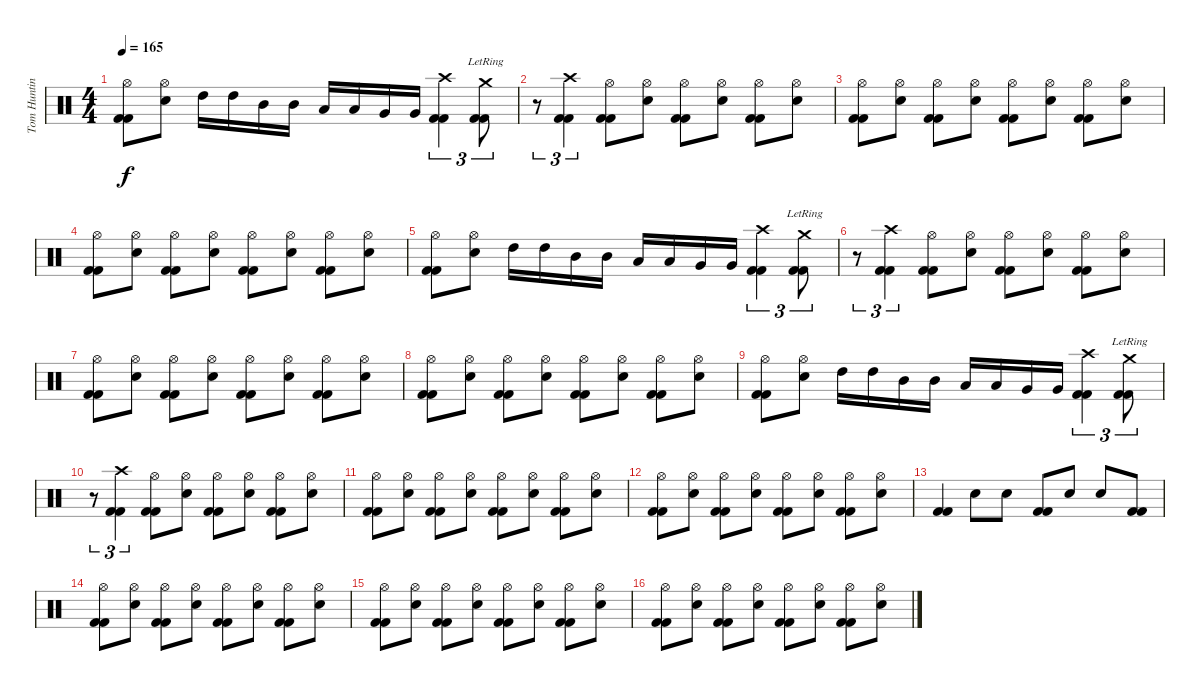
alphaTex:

\track ("Tom Hunting" "Tom Huntin") {instrument percussion}
\staff {score}
\articulation defaults
\ts (4 4)
\tempo 165
\clef neutral
\ks c
("Kick (hit) 2" "Kick (hit) 2" "Hi-Hat (open)").8{dy f} ("Electric Snare (hit)" "Hi-Hat (open)").8 "High Tom (hit)".16 "High Tom (hit)".16 "Mid Tom (hit)".16 "Mid Tom (hit)".16 "Low Tom (hit)".16 "Low Tom (hit)".16 "Very Low Tom (hit)".16 "Very Low Tom (hit)".16 ("Kick (hit) 2" "Kick (hit) 2" "Crash high (hit)").4{tu (3 2)} ("Kick (hit) 2" "Kick (hit) 2" "Crash medium (hit)"{lr}).8{tu (3 2)} |
r.8{tu (3 2)} ("Kick (hit) 2" "Kick (hit) 2" "Crash high (hit)").4{tu (3 2)} ("Kick (hit) 2" "Kick (hit) 2" "Hi-Hat (open)").8 ("Electric Snare (hit)" "Hi-Hat (open)").8 ("Kick (hit) 2" "Kick (hit) 2" "Hi-Hat (open)").8 ("Electric Snare (hit)" "Hi-Hat (open)").8 ("Kick (hit) 2" "Kick (hit) 2" "Hi-Hat (open)").8 ("Electric Snare (hit)" "Hi-Hat (open)").8 |
("Kick (hit) 2" "Kick (hit) 2" "Hi-Hat (open)").8 ("Electric Snare (hit)" "Hi-Hat (open)").8 ("Kick (hit) 2" "Kick (hit) 2" "Hi-Hat (open)").8 ("Electric Snare (hit)" "Hi-Hat (open)").8 ("Kick (hit) 2" "Kick (hit) 2" "Hi-Hat (open)").8 ("Electric Snare (hit)" "Hi-Hat (open)").8 ("Kick (hit) 2" "Kick (hit) 2" "Hi-Hat (open)").8 ("Electric Snare (hit)" "Hi-Hat (open)").8 |
("Kick (hit) 2" "Kick (hit) 2" "Hi-Hat (open)").8 ("Electric Snare (hit)" "Hi-Hat (open)").8 ("Kick (hit) 2" "Kick (hit) 2" "Hi-Hat (open)").8 ("Electric Snare (hit)" "Hi-Hat (open)").8 ("Kick (hit) 2" "Kick (hit) 2" "Hi-Hat (open)").8 ("Electric Snare (hit)" "Hi-Hat (open)").8 ("Kick (hit) 2" "Kick (hit) 2" "Hi-Hat (open)").8 ("Electric Snare (hit)" "Hi-Hat (open)").8 |
("Kick (hit) 2" "Kick (hit) 2" "Hi-Hat (open)").8 ("Electric Snare (hit)" "Hi-Hat (open)").8 "High Tom (hit)".16 "High Tom (hit)".16 "Mid Tom (hit)".16 "Mid Tom (hit)".16 "Low Tom (hit)".16 "Low Tom (hit)".16 "Very Low Tom (hit)".16 "Very Low Tom (hit)".16 ("Kick (hit) 2" "Kick (hit) 2" "Crash high (hit)").4{tu (3 2)} ("Kick (hit) 2" "Kick (hit) 2" "Crash medium (hit)"{lr}).8{tu (3 2)} |
r.8{tu (3 2)} ("Kick (hit) 2" "Kick (hit) 2" "Crash high (hit)").4{tu (3 2)} ("Kick (hit) 2" "Kick (hit) 2" "Hi-Hat (open)").8 ("Electric Snare (hit)" "Hi-Hat (open)").8 ("Kick (hit) 2" "Kick (hit) 2" "Hi-Hat (open)").8 ("Electric Snare (hit)" "Hi-Hat (open)").8 ("Kick (hit) 2" "Kick (hit) 2" "Hi-Hat (open)").8 ("Electric Snare (hit)" "Hi-Hat (open)").8 |
("Kick (hit) 2" "Kick (hit) 2" "Hi-Hat (open)").8 ("Electric Snare (hit)" "Hi-Hat (open)").8 ("Kick (hit) 2" "Kick (hit) 2" "Hi-Hat (open)").8 ("Electric Snare (hit)" "Hi-Hat (open)").8 ("Kick (hit) 2" "Kick (hit) 2" "Hi-Hat (open)").8 ("Electric Snare (hit)" "Hi-Hat (open)").8 ("Kick (hit) 2" "Kick (hit) 2" "Hi-Hat (open)").8 ("Electric Snare (hit)" "Hi-Hat (open)").8 |
("Kick (hit) 2" "Kick (hit) 2" "Hi-Hat (open)").8 ("Electric Snare (hit)" "Hi-Hat (open)").8 ("Kick (hit) 2" "Kick (hit) 2" "Hi-Hat (open)").8 ("Electric Snare (hit)" "Hi-Hat (open)").8 ("Kick (hit) 2" "Kick (hit) 2" "Hi-Hat (open)").8 ("Electric Snare (hit)" "Hi-Hat (open)").8 ("Kick (hit) 2" "Kick (hit) 2" "Hi-Hat (open)").8 ("Electric Snare (hit)" "Hi-Hat (open)").8 |
("Kick (hit) 2" "Kick (hit) 2" "Hi-Hat (open)").8 ("Electric Snare (hit)" "Hi-Hat (open)").8 "High Tom (hit)".16 "High Tom (hit)".16 "Mid Tom (hit)".16 "Mid Tom (hit)".16 "Low Tom (hit)".16 "Low Tom (hit)".16 "Very Low Tom (hit)".16 "Very Low Tom (hit)".16 ("Kick (hit) 2" "Kick (hit) 2" "Crash high (hit)").4{tu (3 2)} ("Kick (hit) 2" "Kick (hit) 2" "Crash medium (hit)"{lr}).8{tu (3 2)} |
r.8{tu (3 2)} ("Kick (hit) 2" "Kick (hit) 2" "Crash high (hit)").4{tu (3 2)} ("Kick (hit) 2" "Kick (hit) 2" "Hi-Hat (open)").8 ("Electric Snare (hit)" "Hi-Hat (open)").8 ("Kick (hit) 2" "Kick (hit) 2" "Hi-Hat (open)").8 ("Electric Snare (hit)" "Hi-Hat (open)").8 ("Kick (hit) 2" "Kick (hit) 2" "Hi-Hat (open)").8 ("Electric Snare (hit)" "Hi-Hat (open)").8 |
("Kick (hit) 2" "Kick (hit) 2" "Hi-Hat (open)").8 ("Electric Snare (hit)" "Hi-Hat (open)").8 ("Kick (hit) 2" "Kick (hit) 2" "Hi-Hat (open)").8 ("Electric Snare (hit)" "Hi-Hat (open)").8 ("Kick (hit) 2" "Kick (hit) 2" "Hi-Hat (open)").8 ("Electric Snare (hit)" "Hi-Hat (open)").8 ("Kick (hit) 2" "Kick (hit) 2" "Hi-Hat (open)").8 ("Electric Snare (hit)" "Hi-Hat (open)").8 |
("Kick (hit) 2" "Kick (hit) 2" "Hi-Hat (open)").8 ("Electric Snare (hit)" "Hi-Hat (open)").8 ("Kick (hit) 2" "Kick (hit) 2" "Hi-Hat (open)").8 ("Electric Snare (hit)" "Hi-Hat (open)").8 ("Kick (hit) 2" "Kick (hit) 2" "Hi-Hat (open)").8 ("Electric Snare (hit)" "Hi-Hat (open)").8 ("Kick (hit) 2" "Kick (hit) 2" "Hi-Hat (open)").8 ("Electric Snare (hit)" "Hi-Hat (open)").8 |
("Kick (hit) 2" "Kick (hit) 2").4 "Electric Snare (hit)".8 "Electric Snare (hit)".8 ("Kick (hit) 2" "Kick (hit) 2").8 "Electric Snare (hit)".8 "Electric Snare (hit)".8 ("Kick (hit) 2" "Kick (hit) 2").8 |
("Kick (hit) 2" "Kick (hit) 2" "Hi-Hat (open)").8 ("Electric Snare (hit)" "Hi-Hat (open)").8 ("Kick (hit) 2" "Kick (hit) 2" "Hi-Hat (open)").8 ("Electric Snare (hit)" "Hi-Hat (open)").8 ("Kick (hit) 2" "Kick (hit) 2" "Hi-Hat (open)").8 ("Electric Snare (hit)" "Hi-Hat (open)").8 ("Kick (hit) 2" "Kick (hit) 2" "Hi-Hat (open)").8 ("Electric Snare (hit)" "Hi-Hat (open)").8 |
("Kick (hit) 2" "Kick (hit) 2" "Hi-Hat (open)").8 ("Electric Snare (hit)" "Hi-Hat (open)").8 ("Kick (hit) 2" "Kick (hit) 2" "Hi-Hat (open)").8 ("Electric Snare (hit)" "Hi-Hat (open)").8 ("Kick (hit) 2" "Kick (hit) 2" "Hi-Hat (open)").8 ("Electric Snare (hit)" "Hi-Hat (open)").8 ("Kick (hit) 2" "Kick (hit) 2" "Hi-Hat (open)").8 ("Electric Snare (hit)" "Hi-Hat (open)").8 |
("Kick (hit) 2" "Kick (hit) 2" "Hi-Hat (open)").8 ("Electric Snare (hit)" "Hi-Hat (open)").8 ("Kick (hit) 2" "Kick (hit) 2" "Hi-Hat (open)").8 ("Electric Snare (hit)" "Hi-Hat (open)").8 ("Kick (hit) 2" "Kick (hit) 2" "Hi-Hat (open)").8 ("Electric Snare (hit)" "Hi-Hat (open)").8 ("Kick (hit) 2" "Kick (hit) 2" "Hi-Hat (open)").8 ("Electric Snare (hit)" "Hi-Hat (open)").8
